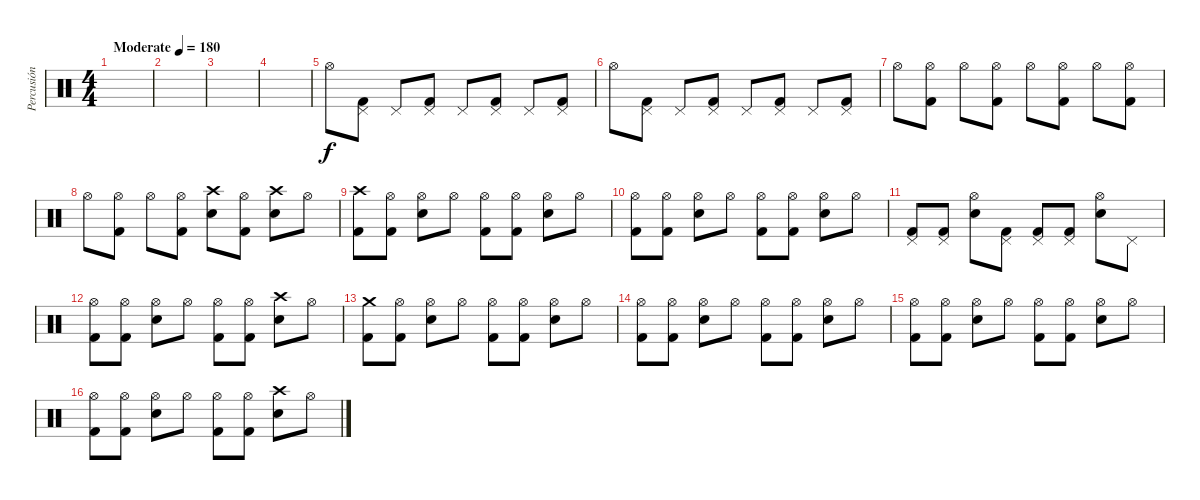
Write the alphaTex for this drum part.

\track ("Percusión" "Percusión") {instrument percussion}
\staff {score}
\articulation defaults
\ts (4 4)
\tempo (180 "Moderate")
\clef neutral
\ks c
|
|
|
|
"Hi-Hat (open)".8 ("Kick (hit) 2" "Pedal Hi-Hat (hit)").8 "Pedal Hi-Hat (hit)".8 ("Kick (hit) 2" "Pedal Hi-Hat (hit)").8 "Pedal Hi-Hat (hit)".8 ("Kick (hit) 2" "Pedal Hi-Hat (hit)").8 "Pedal Hi-Hat (hit)".8 ("Kick (hit) 2" "Pedal Hi-Hat (hit)").8 |
"Hi-Hat (open)".8 ("Kick (hit) 2" "Pedal Hi-Hat (hit)").8 "Pedal Hi-Hat (hit)".8 ("Kick (hit) 2" "Pedal Hi-Hat (hit)").8 "Pedal Hi-Hat (hit)".8 ("Kick (hit) 2" "Pedal Hi-Hat (hit)").8 "Pedal Hi-Hat (hit)".8 ("Kick (hit) 2" "Pedal Hi-Hat (hit)").8 |
"Hi-Hat (open)".8 ("Kick (hit) 2" "Hi-Hat (open)").8 "Hi-Hat (open)".8 ("Kick (hit) 2" "Hi-Hat (open)").8 "Hi-Hat (open)".8 ("Kick (hit) 2" "Hi-Hat (open)").8 "Hi-Hat (open)".8 ("Kick (hit) 2" "Hi-Hat (open)").8 |
"Hi-Hat (open)".8 ("Kick (hit) 2" "Hi-Hat (open)").8 "Hi-Hat (open)".8 ("Kick (hit) 2" "Hi-Hat (open)").8 ("Crash high (hit)" "Snare (hit) 2").8 ("Kick (hit) 2" "Hi-Hat (open)").8 ("Crash high (hit)" "Snare (hit) 2").8 "Hi-Hat (open)".8 |
("Crash high (hit)" "Kick (hit) 2").8 ("Hi-Hat (open)" "Kick (hit) 2").8 ("Hi-Hat (open)" "Snare (hit) 2").8 "Hi-Hat (open)".8 ("Hi-Hat (open)" "Kick (hit) 2").8 ("Hi-Hat (open)" "Kick (hit) 2").8 ("Hi-Hat (open)" "Snare (hit) 2").8 "Hi-Hat (open)".8 |
("Hi-Hat (open)" "Kick (hit) 2").8 ("Hi-Hat (open)" "Kick (hit) 2").8 ("Hi-Hat (open)" "Snare (hit) 2").8 "Hi-Hat (open)".8 ("Hi-Hat (open)" "Kick (hit) 2").8 ("Hi-Hat (open)" "Kick (hit) 2").8 ("Hi-Hat (open)" "Snare (hit) 2").8 "Hi-Hat (open)".8 |
("Pedal Hi-Hat (hit)" "Kick (hit) 2").8 ("Pedal Hi-Hat (hit)" "Kick (hit) 2").8 ("Hi-Hat (open)" "Snare (hit) 2").8 ("Pedal Hi-Hat (hit)" "Kick (hit) 2").8 ("Pedal Hi-Hat (hit)" "Kick (hit) 2").8 ("Pedal Hi-Hat (hit)" "Kick (hit) 2").8 ("Hi-Hat (open)" "Snare (hit) 2").8 "Pedal Hi-Hat (hit)".8 |
("Hi-Hat (open)" "Kick (hit) 2").8 ("Hi-Hat (open)" "Kick (hit) 2").8 ("Hi-Hat (open)" "Snare (hit) 2").8 "Hi-Hat (open)".8 ("Hi-Hat (open)" "Kick (hit) 2").8 ("Hi-Hat (open)" "Kick (hit) 2").8 ("Crash high (hit)" "Snare (hit) 2").8 "Hi-Hat (open)".8 |
("Crash medium (hit)" "Kick (hit) 2").8 ("Hi-Hat (open)" "Kick (hit) 2").8 ("Hi-Hat (open)" "Snare (hit) 2").8 "Hi-Hat (open)".8 ("Hi-Hat (open)" "Kick (hit) 2").8 ("Hi-Hat (open)" "Kick (hit) 2").8 ("Hi-Hat (open)" "Snare (hit) 2").8 "Hi-Hat (open)".8 |
("Hi-Hat (open)" "Kick (hit) 2").8 ("Hi-Hat (open)" "Kick (hit) 2").8 ("Hi-Hat (open)" "Snare (hit) 2").8 "Hi-Hat (open)".8 ("Hi-Hat (open)" "Kick (hit) 2").8 ("Hi-Hat (open)" "Kick (hit) 2").8 ("Hi-Hat (open)" "Snare (hit) 2").8 "Hi-Hat (open)".8 |
("Hi-Hat (open)" "Kick (hit) 2").8 ("Hi-Hat (open)" "Kick (hit) 2").8 ("Hi-Hat (open)" "Snare (hit) 2").8 "Hi-Hat (open)".8 ("Hi-Hat (open)" "Kick (hit) 2").8 ("Hi-Hat (open)" "Kick (hit) 2").8 ("Hi-Hat (open)" "Snare (hit) 2").8 "Hi-Hat (open)".8 |
("Hi-Hat (open)" "Kick (hit) 2").8 ("Hi-Hat (open)" "Kick (hit) 2").8 ("Hi-Hat (open)" "Snare (hit) 2").8 "Hi-Hat (open)".8 ("Hi-Hat (open)" "Kick (hit) 2").8 ("Hi-Hat (open)" "Kick (hit) 2").8 ("Crash high (hit)" "Snare (hit) 2").8 "Hi-Hat (open)".8
